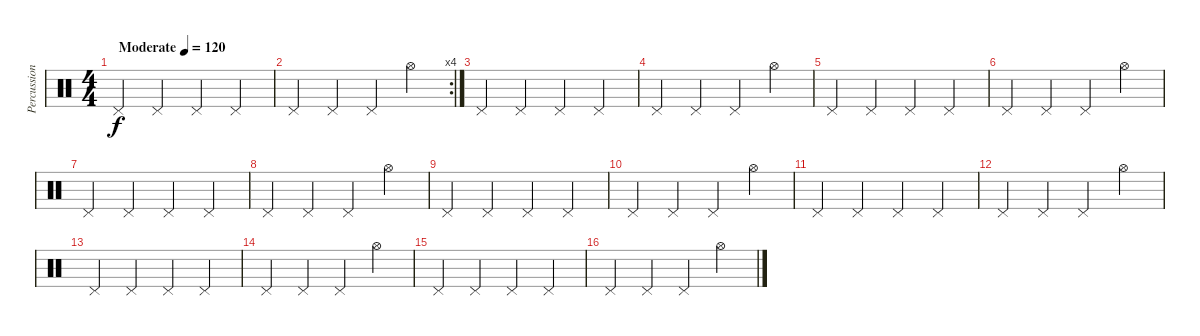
\track ("Percussion" "Percussion") {instrument percussion}
\staff {score}
\articulation defaults
\ts (4 4)
\tempo (120 "Moderate")
\clef neutral
\ks c "Pedal Hi-Hat (hit)".4{dy f} "Pedal Hi-Hat (hit)".4 "Pedal Hi-Hat (hit)".4 "Pedal Hi-Hat (hit)".4
|
\rc 4 "Pedal Hi-Hat (hit)".4 "Pedal Hi-Hat (hit)".4 "Pedal Hi-Hat (hit)".4 "Hi-Hat (open)".4
|
"Pedal Hi-Hat (hit)".4 "Pedal Hi-Hat (hit)".4 "Pedal Hi-Hat (hit)".4 "Pedal Hi-Hat (hit)".4 |
"Pedal Hi-Hat (hit)".4 "Pedal Hi-Hat (hit)".4 "Pedal Hi-Hat (hit)".4 "Hi-Hat (open)".4 |
"Pedal Hi-Hat (hit)".4 "Pedal Hi-Hat (hit)".4 "Pedal Hi-Hat (hit)".4 "Pedal Hi-Hat (hit)".4 |
"Pedal Hi-Hat (hit)".4 "Pedal Hi-Hat (hit)".4 "Pedal Hi-Hat (hit)".4 "Hi-Hat (open)".4 |
"Pedal Hi-Hat (hit)".4 "Pedal Hi-Hat (hit)".4 "Pedal Hi-Hat (hit)".4 "Pedal Hi-Hat (hit)".4 |
"Pedal Hi-Hat (hit)".4 "Pedal Hi-Hat (hit)".4 "Pedal Hi-Hat (hit)".4 "Hi-Hat (open)".4 |
"Pedal Hi-Hat (hit)".4 "Pedal Hi-Hat (hit)".4 "Pedal Hi-Hat (hit)".4 "Pedal Hi-Hat (hit)".4 |
"Pedal Hi-Hat (hit)".4 "Pedal Hi-Hat (hit)".4 "Pedal Hi-Hat (hit)".4 "Hi-Hat (open)".4 |
"Pedal Hi-Hat (hit)".4 "Pedal Hi-Hat (hit)".4 "Pedal Hi-Hat (hit)".4 "Pedal Hi-Hat (hit)".4 |
"Pedal Hi-Hat (hit)".4 "Pedal Hi-Hat (hit)".4 "Pedal Hi-Hat (hit)".4 "Hi-Hat (open)".4 |
"Pedal Hi-Hat (hit)".4 "Pedal Hi-Hat (hit)".4 "Pedal Hi-Hat (hit)".4 "Pedal Hi-Hat (hit)".4 |
"Pedal Hi-Hat (hit)".4 "Pedal Hi-Hat (hit)".4 "Pedal Hi-Hat (hit)".4 "Hi-Hat (open)".4 |
"Pedal Hi-Hat (hit)".4 "Pedal Hi-Hat (hit)".4 "Pedal Hi-Hat (hit)".4 "Pedal Hi-Hat (hit)".4 |
"Pedal Hi-Hat (hit)".4 "Pedal Hi-Hat (hit)".4 "Pedal Hi-Hat (hit)".4 "Hi-Hat (open)".4
